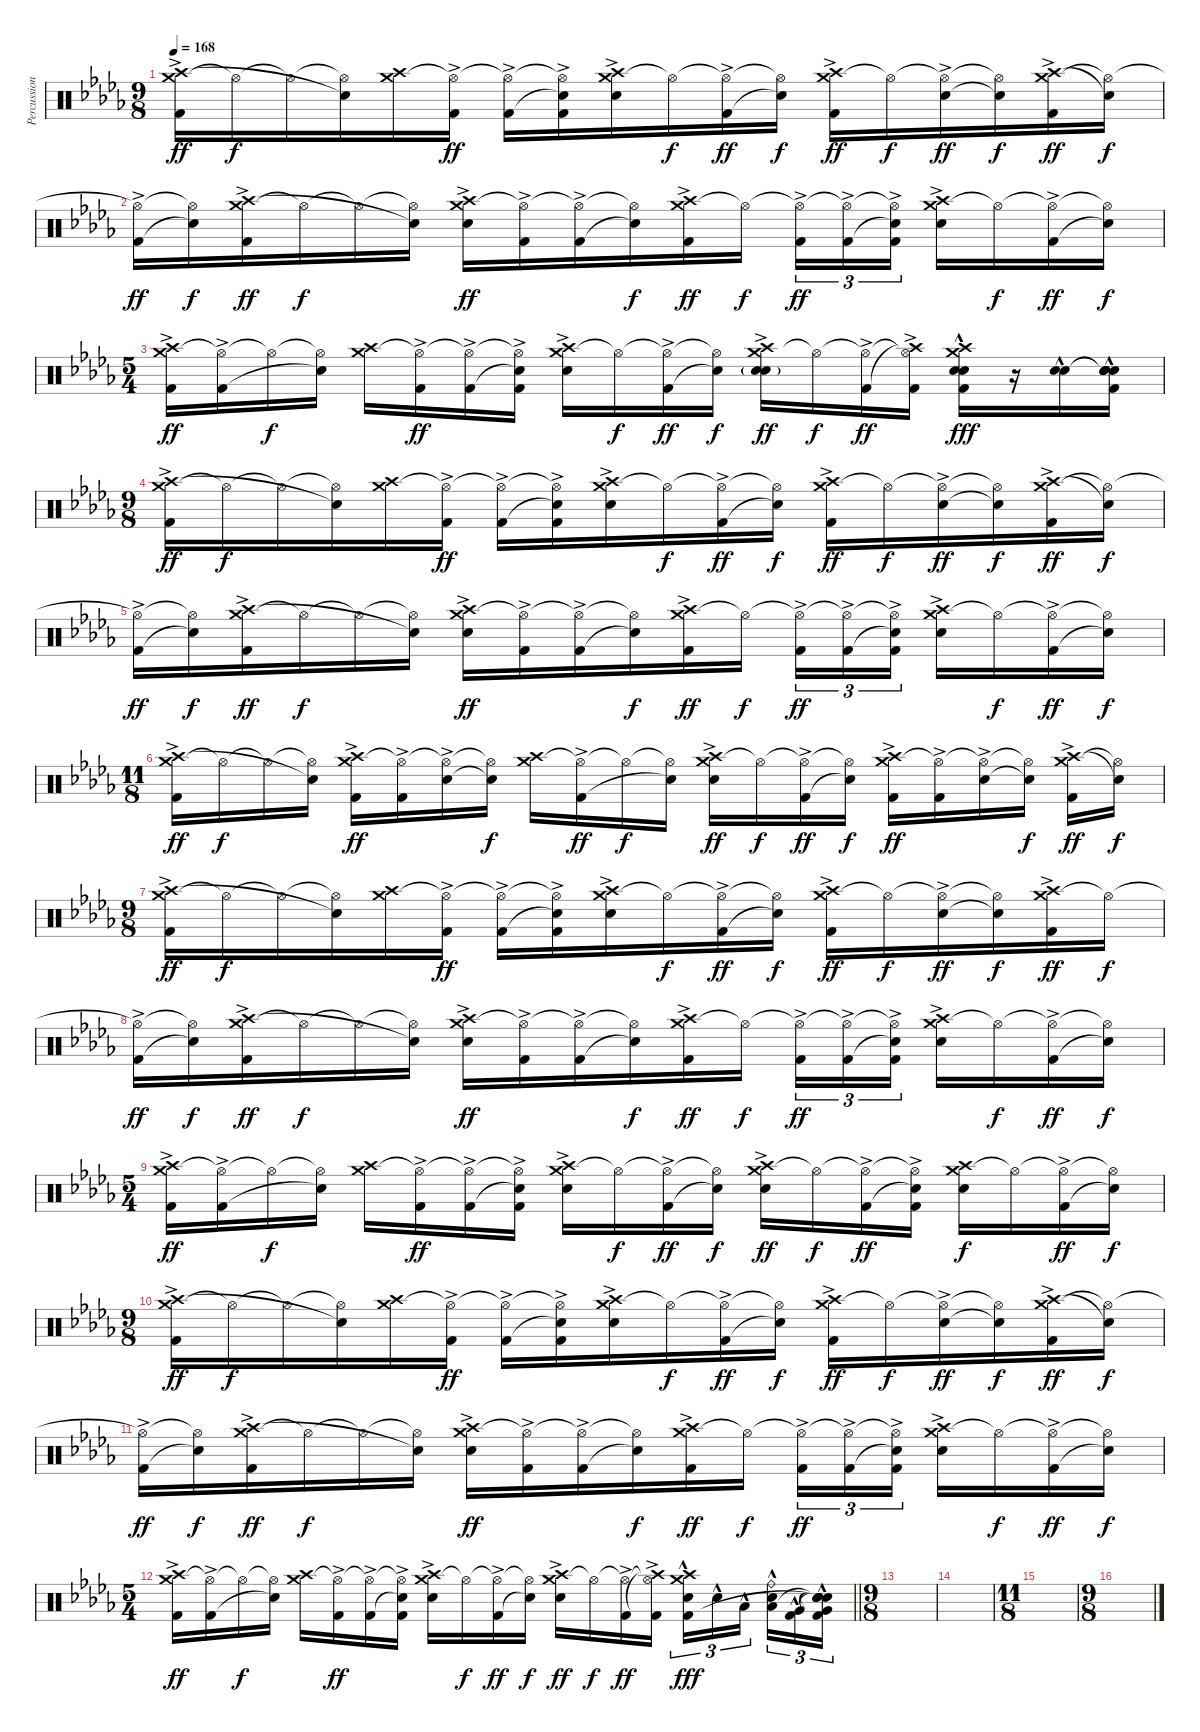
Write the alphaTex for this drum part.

\track ("Percussion" "Percussion") {instrument percussion}
\staff {score}
\articulation defaults
\ts (9 8)
\tempo 168
\clef neutral
\ks bbminor
("Crash medium (hit)" "Crash high (hit)" "Kick (hit) 2"{ac}).16{dy ff} "Hi-Hat (open)"{t}.16{dy f} "Hi-Hat (open)"{t}.16 ("Hi-Hat (open)"{t} "Snare (hit)"{t}).16 ("Crash medium (hit)" "Crash high (hit)").16 ("Hi-Hat (open)"{t} "Kick (hit) 2"{ac}).16{dy ff} ("Hi-Hat (open)"{t} "Kick (hit) 2"{ac}).16 ("Hi-Hat (open)"{t} "Snare (hit)"{t} "Kick (hit) 2"{ac}).16 ("Crash medium (hit)" "Crash high (hit)" "Snare (hit) 2"{ac}).16 "Hi-Hat (open)"{t}.16{dy f} ("Hi-Hat (open)"{t} "Kick (hit) 2"{ac}).16{dy ff} ("Hi-Hat (open)"{t} "Snare (hit)"{t}).16{dy f} ("Crash medium (hit)" "Crash high (hit)" "Kick (hit) 2"{ac}).16{dy ff} "Hi-Hat (open)"{t}.16{dy f} ("Hi-Hat (open)"{t} "Snare (hit) 2"{ac}).16{dy ff} ("Hi-Hat (open)"{t} "Snare (hit)"{t}).16{dy f} ("Crash medium (hit)" "Crash high (hit)" "Kick (hit) 2"{ac}).16{dy ff} ("Hi-Hat (open)"{t} "Snare (hit)"{t}).16{dy f} |
("Hi-Hat (open)"{t} "Kick (hit) 2"{ac}).16{dy ff} ("Hi-Hat (open)"{t} "Snare (hit)"{t}).16{dy f} ("Crash medium (hit)" "Crash high (hit)" "Kick (hit) 2"{ac}).16{dy ff} "Hi-Hat (open)"{t}.16{dy f} "Hi-Hat (open)"{t}.16 ("Hi-Hat (open)"{t} "Snare (hit)"{t}).16 ("Crash medium (hit)" "Crash high (hit)" "Snare (hit) 2"{ac}).16{dy ff} ("Hi-Hat (open)"{t} "Kick (hit) 2"{ac}).16 ("Hi-Hat (open)"{t} "Kick (hit) 2"{ac}).16 ("Hi-Hat (open)"{t} "Snare (hit)"{t}).16{dy f} ("Crash medium (hit)" "Crash high (hit)" "Kick (hit) 2"{ac}).16{dy ff} "Hi-Hat (open)"{t}.16{dy f} ("Hi-Hat (open)"{t} "Kick (hit) 2"{ac}).16{tu (3 2) dy ff} ("Hi-Hat (open)"{t} "Kick (hit) 2"{ac}).16{tu (3 2)} ("Hi-Hat (open)"{t} "Snare (hit)"{t} "Kick (hit) 2"{ac}).16{tu (3 2) beam splitsecondary} ("Crash medium (hit)" "Crash high (hit)" "Snare (hit) 2"{ac}).16 "Hi-Hat (open)"{t}.16{dy f} ("Hi-Hat (open)"{t} "Kick (hit) 2"{ac}).16{dy ff} ("Hi-Hat (open)"{t} "Snare (hit)"{t}).16{dy f} |
\ts (5 4)
("Crash medium (hit)" "Crash high (hit)" "Kick (hit) 2"{ac}).16{dy ff} ("Hi-Hat (open)"{t} "Kick (hit) 2"{ac}).16 "Hi-Hat (open)"{t}.16{dy f} ("Hi-Hat (open)"{t} "Snare (hit)"{t}).16 ("Crash medium (hit)" "Crash high (hit)").16 ("Hi-Hat (open)"{t} "Kick (hit) 2"{ac}).16{dy ff} ("Hi-Hat (open)"{t} "Kick (hit) 2"{ac}).16 ("Hi-Hat (open)"{t} "Snare (hit)"{t} "Kick (hit) 2"{ac}).16 ("Crash medium (hit)" "Crash high (hit)" "Snare (hit) 2"{ac}).16 "Hi-Hat (open)"{t}.16{dy f} ("Hi-Hat (open)"{t} "Kick (hit) 2"{ac}).16{dy ff} ("Hi-Hat (open)"{t} "Snare (hit)"{t}).16{dy f} ("Crash medium (hit)" "Crash high (hit)" "Electric Snare (hit)"{g} "Snare (hit) 2"{ac}).16{dy ff} "Hi-Hat (open)"{t}.16{dy f} ("Hi-Hat (open)"{t} "Kick (hit) 2"{ac}).16{dy ff} ("Hi-Hat (open)"{t} "Crash high (hit)"{t} "Kick (hit) 2"{ac}).16 ("Crash medium (hit)" "Crash high (hit)" "Electric Snare (hit)" "Snare (hit) 2"{hac} "Kick (hit) 2"{hac}).16{dy fff} r.16 ("Electric Snare (hit)" "Snare (hit) 2"{hac}).16 ("Snare (hit)"{t} "Snare (hit)"{t} "Electric Snare (hit)" "Snare (hit) 2"{hac} "Kick (hit) 2").16 |
\ts (9 8)
("Crash medium (hit)" "Crash high (hit)" "Kick (hit) 2"{ac}).16{dy ff} "Hi-Hat (open)"{t}.16{dy f} "Hi-Hat (open)"{t}.16 ("Hi-Hat (open)"{t} "Snare (hit)"{t}).16 ("Crash medium (hit)" "Crash high (hit)").16 ("Hi-Hat (open)"{t} "Kick (hit) 2"{ac}).16{dy ff} ("Hi-Hat (open)"{t} "Kick (hit) 2"{ac}).16 ("Hi-Hat (open)"{t} "Snare (hit)"{t} "Kick (hit) 2"{ac}).16 ("Crash medium (hit)" "Crash high (hit)" "Snare (hit) 2"{ac}).16 "Hi-Hat (open)"{t}.16{dy f} ("Hi-Hat (open)"{t} "Kick (hit) 2"{ac}).16{dy ff} ("Hi-Hat (open)"{t} "Snare (hit)"{t}).16{dy f} ("Crash medium (hit)" "Crash high (hit)" "Kick (hit) 2"{ac}).16{dy ff} "Hi-Hat (open)"{t}.16{dy f} ("Hi-Hat (open)"{t} "Snare (hit) 2"{ac}).16{dy ff} ("Hi-Hat (open)"{t} "Snare (hit)"{t}).16{dy f} ("Crash medium (hit)" "Crash high (hit)" "Kick (hit) 2"{ac}).16{dy ff} ("Hi-Hat (open)"{t} "Snare (hit)"{t}).16{dy f} |
("Hi-Hat (open)"{t} "Kick (hit) 2"{ac}).16{dy ff} ("Hi-Hat (open)"{t} "Snare (hit)"{t}).16{dy f} ("Crash medium (hit)" "Crash high (hit)" "Kick (hit) 2"{ac}).16{dy ff} "Hi-Hat (open)"{t}.16{dy f} "Hi-Hat (open)"{t}.16 ("Hi-Hat (open)"{t} "Snare (hit)"{t}).16 ("Crash medium (hit)" "Crash high (hit)" "Snare (hit) 2"{ac}).16{dy ff} ("Hi-Hat (open)"{t} "Kick (hit) 2"{ac}).16 ("Hi-Hat (open)"{t} "Kick (hit) 2"{ac}).16 ("Hi-Hat (open)"{t} "Snare (hit)"{t}).16{dy f} ("Crash medium (hit)" "Crash high (hit)" "Kick (hit) 2"{ac}).16{dy ff} "Hi-Hat (open)"{t}.16{dy f} ("Hi-Hat (open)"{t} "Kick (hit) 2"{ac}).16{tu (3 2) dy ff} ("Hi-Hat (open)"{t} "Kick (hit) 2"{ac}).16{tu (3 2)} ("Hi-Hat (open)"{t} "Snare (hit)"{t} "Kick (hit) 2"{ac}).16{tu (3 2) beam splitsecondary} ("Crash medium (hit)" "Crash high (hit)" "Snare (hit) 2"{ac}).16 "Hi-Hat (open)"{t}.16{dy f} ("Hi-Hat (open)"{t} "Kick (hit) 2"{ac}).16{dy ff} ("Hi-Hat (open)"{t} "Snare (hit)"{t}).16{dy f} |
\ts (11 8)
("Crash medium (hit)" "Crash high (hit)" "Kick (hit) 2"{ac}).16{dy ff} "Hi-Hat (open)"{t}.16{dy f} "Hi-Hat (open)"{t}.16 ("Hi-Hat (open)"{t} "Snare (hit)"{t}).16 ("Crash medium (hit)" "Crash high (hit)" "Kick (hit) 2"{ac}).16{dy ff} ("Hi-Hat (open)"{t} "Kick (hit) 2"{ac}).16 ("Hi-Hat (open)"{t} "Snare (hit) 2"{ac}).16 ("Hi-Hat (open)"{t} "Snare (hit)"{t}).16{dy f} ("Crash medium (hit)" "Crash high (hit)").16 ("Hi-Hat (open)"{t} "Kick (hit) 2"{ac}).16{dy ff} "Hi-Hat (open)"{t}.16{dy f} ("Hi-Hat (open)"{t} "Snare (hit)"{t}).16 ("Crash medium (hit)" "Crash high (hit)" "Snare (hit) 2"{ac}).16{dy ff} "Hi-Hat (open)"{t}.16{dy f} ("Hi-Hat (open)"{t} "Kick (hit) 2"{ac}).16{dy ff} ("Hi-Hat (open)"{t} "Snare (hit)"{t}).16{dy f} ("Crash medium (hit)" "Crash high (hit)" "Kick (hit) 2"{ac}).16{dy ff} ("Hi-Hat (open)"{t} "Kick (hit) 2"{ac}).16 ("Hi-Hat (open)"{t} "Snare (hit) 2"{ac}).16 ("Hi-Hat (open)"{t} "Snare (hit)"{t}).16{dy f} ("Crash medium (hit)" "Crash high (hit)" "Kick (hit) 2"{ac}).16{dy ff} ("Hi-Hat (open)"{t} "Snare (hit)"{t}).16{dy f} |
\ts (9 8)
("Crash medium (hit)" "Crash high (hit)" "Kick (hit) 2"{ac}).16{dy ff} "Hi-Hat (open)"{t}.16{dy f} "Hi-Hat (open)"{t}.16 ("Hi-Hat (open)"{t} "Snare (hit)"{t}).16 ("Crash medium (hit)" "Crash high (hit)").16 ("Hi-Hat (open)"{t} "Kick (hit) 2"{ac}).16{dy ff} ("Hi-Hat (open)"{t} "Kick (hit) 2"{ac}).16 ("Hi-Hat (open)"{t} "Snare (hit)"{t} "Kick (hit) 2"{ac}).16 ("Crash medium (hit)" "Crash high (hit)" "Snare (hit) 2"{ac}).16 "Hi-Hat (open)"{t}.16{dy f} ("Hi-Hat (open)"{t} "Kick (hit) 2"{ac}).16{dy ff} ("Hi-Hat (open)"{t} "Snare (hit)"{t}).16{dy f} ("Crash medium (hit)" "Crash high (hit)" "Kick (hit) 2"{ac}).16{dy ff} "Hi-Hat (open)"{t}.16{dy f} ("Hi-Hat (open)"{t} "Snare (hit) 2"{ac}).16{dy ff} ("Hi-Hat (open)"{t} "Snare (hit)"{t}).16{dy f} ("Crash medium (hit)" "Crash high (hit)" "Kick (hit) 2"{ac}).16{dy ff} "Hi-Hat (open)"{t}.16{dy f} |
("Hi-Hat (open)"{t} "Kick (hit) 2"{ac}).16{dy ff} ("Hi-Hat (open)"{t} "Snare (hit)"{t}).16{dy f} ("Crash medium (hit)" "Crash high (hit)" "Kick (hit) 2"{ac}).16{dy ff} "Hi-Hat (open)"{t}.16{dy f} "Hi-Hat (open)"{t}.16 ("Hi-Hat (open)"{t} "Snare (hit)"{t}).16 ("Crash medium (hit)" "Crash high (hit)" "Snare (hit) 2"{ac}).16{dy ff} ("Hi-Hat (open)"{t} "Kick (hit) 2"{ac}).16 ("Hi-Hat (open)"{t} "Kick (hit) 2"{ac}).16 ("Hi-Hat (open)"{t} "Snare (hit)"{t}).16{dy f} ("Crash medium (hit)" "Crash high (hit)" "Kick (hit) 2"{ac}).16{dy ff} "Hi-Hat (open)"{t}.16{dy f} ("Hi-Hat (open)"{t} "Kick (hit) 2"{ac}).16{tu (3 2) dy ff} ("Hi-Hat (open)"{t} "Kick (hit) 2"{ac}).16{tu (3 2)} ("Hi-Hat (open)"{t} "Snare (hit)"{t} "Kick (hit) 2"{ac}).16{tu (3 2) beam splitsecondary} ("Crash medium (hit)" "Crash high (hit)" "Snare (hit) 2"{ac}).16 "Hi-Hat (open)"{t}.16{dy f} ("Hi-Hat (open)"{t} "Kick (hit) 2"{ac}).16{dy ff} ("Hi-Hat (open)"{t} "Snare (hit)"{t}).16{dy f} |
\ts (5 4)
("Crash medium (hit)" "Crash high (hit)" "Kick (hit) 2"{ac}).16{dy ff} ("Hi-Hat (open)"{t} "Kick (hit) 2"{ac}).16 "Hi-Hat (open)"{t}.16{dy f} ("Hi-Hat (open)"{t} "Snare (hit)"{t}).16 ("Crash medium (hit)" "Crash high (hit)").16 ("Hi-Hat (open)"{t} "Kick (hit) 2"{ac}).16{dy ff} ("Hi-Hat (open)"{t} "Kick (hit) 2"{ac}).16 ("Hi-Hat (open)"{t} "Snare (hit)"{t} "Kick (hit) 2"{ac}).16 ("Crash medium (hit)" "Crash high (hit)" "Snare (hit) 2"{ac}).16 "Hi-Hat (open)"{t}.16{dy f} ("Hi-Hat (open)"{t} "Kick (hit) 2"{ac}).16{dy ff} ("Hi-Hat (open)"{t} "Snare (hit)"{t}).16{dy f} ("Crash medium (hit)" "Crash high (hit)" "Snare (hit) 2"{ac}).16{dy ff} "Hi-Hat (open)"{t}.16{dy f} ("Hi-Hat (open)"{t} "Kick (hit) 2"{ac}).16{dy ff} ("Hi-Hat (open)"{t} "Snare (hit)"{t} "Kick (hit) 2"{ac}).16 ("Crash medium (hit)" "Crash high (hit)" "Snare (hit) 2").16{dy f} "Hi-Hat (open)"{t}.16 ("Hi-Hat (open)"{t} "Kick (hit) 2"{ac}).16{dy ff} ("Hi-Hat (open)"{t} "Snare (hit)"{t}).16{dy f} |
\ts (9 8)
("Crash medium (hit)" "Crash high (hit)" "Kick (hit) 2"{ac}).16{dy ff} "Hi-Hat (open)"{t}.16{dy f} "Hi-Hat (open)"{t}.16 ("Hi-Hat (open)"{t} "Snare (hit)"{t}).16 ("Crash medium (hit)" "Crash high (hit)").16 ("Hi-Hat (open)"{t} "Kick (hit) 2"{ac}).16{dy ff} ("Hi-Hat (open)"{t} "Kick (hit) 2"{ac}).16 ("Hi-Hat (open)"{t} "Snare (hit)"{t} "Kick (hit) 2"{ac}).16 ("Crash medium (hit)" "Crash high (hit)" "Snare (hit) 2"{ac}).16 "Hi-Hat (open)"{t}.16{dy f} ("Hi-Hat (open)"{t} "Kick (hit) 2"{ac}).16{dy ff} ("Hi-Hat (open)"{t} "Snare (hit)"{t}).16{dy f} ("Crash medium (hit)" "Crash high (hit)" "Kick (hit) 2"{ac}).16{dy ff} "Hi-Hat (open)"{t}.16{dy f} ("Hi-Hat (open)"{t} "Snare (hit) 2"{ac}).16{dy ff} ("Hi-Hat (open)"{t} "Snare (hit)"{t}).16{dy f} ("Crash medium (hit)" "Crash high (hit)" "Kick (hit) 2"{ac}).16{dy ff} ("Hi-Hat (open)"{t} "Snare (hit)"{t}).16{dy f} |
("Hi-Hat (open)"{t} "Kick (hit) 2"{ac}).16{dy ff} ("Hi-Hat (open)"{t} "Snare (hit)"{t}).16{dy f} ("Crash medium (hit)" "Crash high (hit)" "Kick (hit) 2"{ac}).16{dy ff} "Hi-Hat (open)"{t}.16{dy f} "Hi-Hat (open)"{t}.16 ("Hi-Hat (open)"{t} "Snare (hit)"{t}).16 ("Crash medium (hit)" "Crash high (hit)" "Snare (hit) 2"{ac}).16{dy ff} ("Hi-Hat (open)"{t} "Kick (hit) 2"{ac}).16 ("Hi-Hat (open)"{t} "Kick (hit) 2"{ac}).16 ("Hi-Hat (open)"{t} "Snare (hit)"{t}).16{dy f} ("Crash medium (hit)" "Crash high (hit)" "Kick (hit) 2"{ac}).16{dy ff} "Hi-Hat (open)"{t}.16{dy f} ("Hi-Hat (open)"{t} "Kick (hit) 2"{ac}).16{tu (3 2) dy ff} ("Hi-Hat (open)"{t} "Kick (hit) 2"{ac}).16{tu (3 2)} ("Hi-Hat (open)"{t} "Snare (hit)"{t} "Kick (hit) 2"{ac}).16{tu (3 2) beam splitsecondary} ("Crash medium (hit)" "Crash high (hit)" "Snare (hit) 2"{ac}).16 "Hi-Hat (open)"{t}.16{dy f} ("Hi-Hat (open)"{t} "Kick (hit) 2"{ac}).16{dy ff} ("Hi-Hat (open)"{t} "Snare (hit)"{t}).16{dy f} |
\ts (5 4)
\barLineRight lightlight
("Crash medium (hit)" "Crash high (hit)" "Kick (hit) 2"{ac}).16{dy ff} ("Hi-Hat (open)"{t} "Kick (hit) 2"{ac}).16 "Hi-Hat (open)"{t}.16{dy f} ("Hi-Hat (open)"{t} "Snare (hit)"{t}).16 ("Crash medium (hit)" "Crash high (hit)").16 ("Hi-Hat (open)"{t} "Kick (hit) 2"{ac}).16{dy ff} ("Hi-Hat (open)"{t} "Kick (hit) 2"{ac}).16 ("Hi-Hat (open)"{t} "Snare (hit)"{t} "Kick (hit) 2"{ac}).16 ("Crash medium (hit)" "Crash high (hit)" "Snare (hit) 2"{ac}).16 "Hi-Hat (open)"{t}.16{dy f} ("Hi-Hat (open)"{t} "Kick (hit) 2"{ac}).16{dy ff} ("Hi-Hat (open)"{t} "Snare (hit)"{t}).16{dy f} ("Crash medium (hit)" "Crash high (hit)" "Snare (hit) 2"{ac}).16{dy ff} "Hi-Hat (open)"{t}.16{dy f} ("Hi-Hat (open)"{t} "Kick (hit) 2"{ac}).16{dy ff} ("Hi-Hat (open)"{t} "Crash high (hit)"{t} "Kick (hit) 2"{ac}).16 ("Crash medium (hit)" "Crash high (hit)" "Snare (hit) 2"{hac} "Kick (hit) 2"{hac}).16{tu (3 2) dy fff} "Snare (hit) 2"{hac}.16{tu (3 2)} "Low Tom (hit)"{hac}.16{tu (3 2) beam splitsecondary} ("Metronome (bell)"{hac} "Ride (bell)" "Low Tom (hit)"{hac}).16{tu (3 2)} ("Kick (hit) 2" "Very Low Tom (hit)"{hac}).16{tu (3 2)} ("Snare (hit)"{t} "Snare (hit)"{t} "Snare (hit)"{t} "Snare (hit)"{t} "Kick (hit) 2" "Very Low Tom (hit)"{hac}).16{tu (3 2)} |
\ts (9 8)
|
|
\ts (11 8)
|
\ts (9 8)
